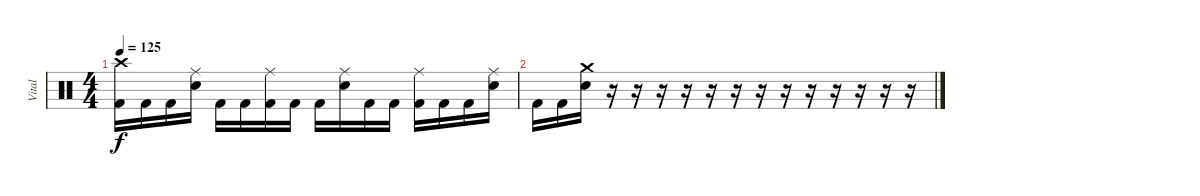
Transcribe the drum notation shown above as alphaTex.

\track ("Vital" "Vital") {instrument percussion}
\staff {score}
\articulation defaults
\ts (4 4)
\tempo 125
\clef neutral
\ks c
("Kick (hit) 2" "Crash high (hit)").16{dy f} "Kick (hit) 2".16 "Kick (hit) 2".16 ("Snare (hit) 2" "Ride (middle)").16 "Kick (hit) 2".16 "Kick (hit) 2".16 ("Kick (hit) 2" "Ride (middle)").16 "Kick (hit) 2".16 "Kick (hit) 2".16 ("Snare (hit) 2" "Ride (middle)").16 "Kick (hit) 2".16 "Kick (hit) 2".16 ("Kick (hit) 2" "Ride (middle)").16 "Kick (hit) 2".16 "Kick (hit) 2".16 ("Snare (hit) 2" "Ride (middle)").16 |
"Kick (hit) 2".16 "Kick (hit) 2".16 ("Snare (hit) 2" "Crash medium (hit)").16 r.16 r.16 r.16 r.16 r.16 r.16 r.16 r.16 r.16 r.16 r.16 r.16 r.16
